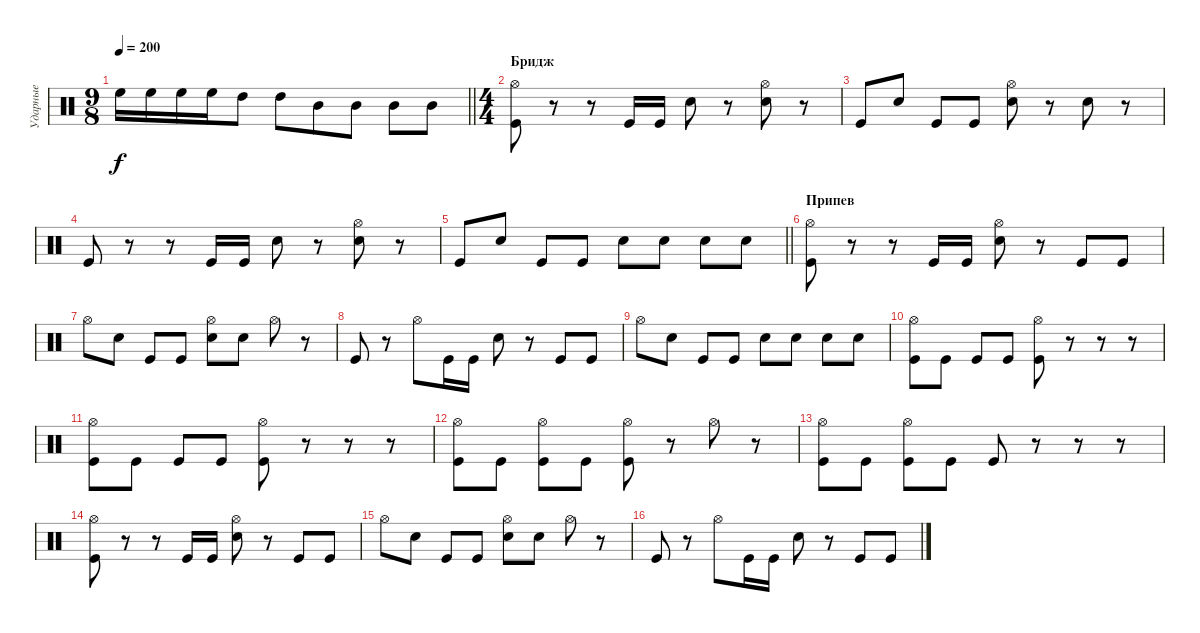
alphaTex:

\track ("Ударные" "Ударные") {instrument percussion}
\staff {score}
\articulation defaults
\ts (9 8)
\tempo 200
\clef neutral
\barLineRight lightlight
\ks c "High Floor Tom (hit)".16{dy f} "High Floor Tom (hit)".16 "High Floor Tom (hit)".16 "High Floor Tom (hit)".16 "High Tom (hit)".8 "High Tom (hit)".8 "Mid Tom (hit)".8 "Mid Tom (hit)".8 "Mid Tom (hit)".8 "Mid Tom (hit)".8
|
\ts (4 4)
\section ("" "Бридж")
("Hi-Hat (open)" "Kick (hit)").8 r.8 r.8 "Kick (hit)".16 "Kick (hit)".16 "Snare (hit) 2".8 r.8 ("Hi-Hat (open)" "Snare (hit) 2").8 r.8 |
"Kick (hit)".8 "Snare (hit) 2".8 "Kick (hit)".8 "Kick (hit)".8 ("Hi-Hat (open)" "Snare (hit) 2").8 r.8 "Snare (hit) 2".8 r.8 |
"Kick (hit)".8 r.8 r.8 "Kick (hit)".16 "Kick (hit)".16 "Snare (hit) 2".8 r.8 ("Hi-Hat (open)" "Snare (hit) 2").8 r.8 |
\barLineRight lightlight "Kick (hit)".8 "Snare (hit) 2".8 "Kick (hit)".8 "Kick (hit)".8 "Snare (hit) 2".8 "Snare (hit) 2".8 "Snare (hit) 2".8 "Snare (hit) 2".8
|
\section ("" "Припев")
("Hi-Hat (open)" "Kick (hit)").8 r.8 r.8 "Kick (hit)".16 "Kick (hit)".16 ("Hi-Hat (open)" "Snare (hit) 2").8 r.8 "Kick (hit)".8 "Kick (hit)".8 |
"Hi-Hat (open)".8 "Snare (hit) 2".8 "Kick (hit)".8 "Kick (hit)".8 ("Hi-Hat (open)" "Snare (hit) 2").8 "Snare (hit) 2".8 "Hi-Hat (open)".8 r.8 |
"Kick (hit)".8 r.8 "Hi-Hat (open)".8 "Kick (hit)".16 "Kick (hit)".16 "Snare (hit) 2".8 r.8 "Kick (hit)".8 "Kick (hit)".8 |
"Hi-Hat (open)".8 "Snare (hit) 2".8 "Kick (hit)".8 "Kick (hit)".8 "Snare (hit) 2".8 "Snare (hit) 2".8 "Snare (hit) 2".8 "Snare (hit) 2".8 |
("Hi-Hat (open)" "Kick (hit)").8 "Kick (hit)".8 "Kick (hit)".8 "Kick (hit)".8 ("Hi-Hat (open)" "Kick (hit)").8 r.8 r.8 r.8 |
("Hi-Hat (open)" "Kick (hit)").8 "Kick (hit)".8 "Kick (hit)".8 "Kick (hit)".8 ("Hi-Hat (open)" "Kick (hit)").8 r.8 r.8 r.8 |
("Hi-Hat (open)" "Kick (hit)").8 "Kick (hit)".8 ("Hi-Hat (open)" "Kick (hit)").8 "Kick (hit)".8 ("Hi-Hat (open)" "Kick (hit)").8 r.8 "Hi-Hat (open)".8 r.8 |
("Hi-Hat (open)" "Kick (hit)").8 "Kick (hit)".8 ("Hi-Hat (open)" "Kick (hit)").8 "Kick (hit)".8 "Kick (hit)".8 r.8 r.8 r.8 |
("Hi-Hat (open)" "Kick (hit)").8 r.8 r.8 "Kick (hit)".16 "Kick (hit)".16 ("Hi-Hat (open)" "Snare (hit) 2").8 r.8 "Kick (hit)".8 "Kick (hit)".8 |
"Hi-Hat (open)".8 "Snare (hit) 2".8 "Kick (hit)".8 "Kick (hit)".8 ("Hi-Hat (open)" "Snare (hit) 2").8 "Snare (hit) 2".8 "Hi-Hat (open)".8 r.8 |
"Kick (hit)".8 r.8 "Hi-Hat (open)".8 "Kick (hit)".16 "Kick (hit)".16 "Snare (hit) 2".8 r.8 "Kick (hit)".8 "Kick (hit)".8
